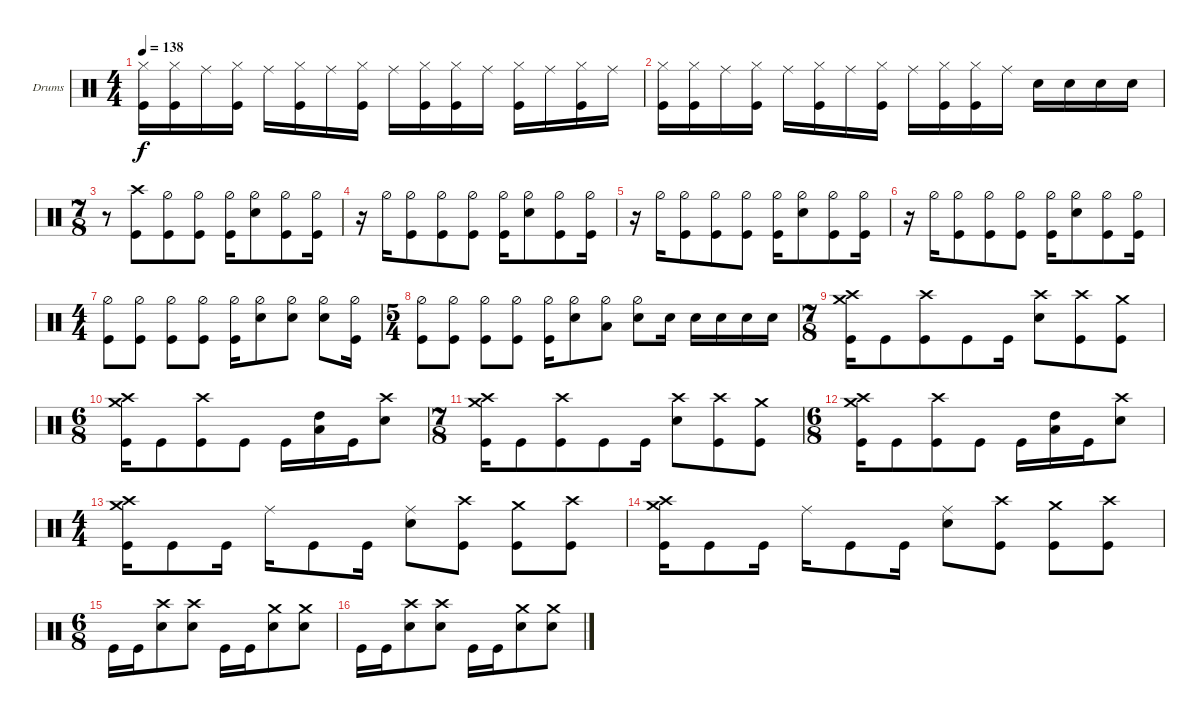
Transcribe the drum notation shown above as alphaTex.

\defaultSystemsLayout 4
\bracketExtendMode groupsimilarinstruments
\firstSystemTrackNameOrientation horizontal
\otherSystemsTrackNameOrientation horizontal
\track ("Moe Carlson" "Drums") {instrument percussion}
\staff {score}
\articulation defaults
\ts (4 4)
\tempo 138
\clef neutral
\ks c
("Hi-Hat (closed)" "Kick (hit)").16{dy f} ("Hi-Hat (closed)" "Kick (hit)").16 "Ride (middle)".16 ("Hi-Hat (closed)" "Kick (hit)").16 "Ride (middle)".16 ("Hi-Hat (closed)" "Kick (hit)").16 "Ride (middle)".16 ("Hi-Hat (closed)" "Kick (hit)").16 "Ride (middle)".16 ("Hi-Hat (closed)" "Kick (hit)").16 ("Hi-Hat (closed)" "Kick (hit)").16 "Ride (middle)".16 ("Hi-Hat (closed)" "Kick (hit)").16 "Ride (middle)".16 ("Hi-Hat (closed)" "Kick (hit)").16 "Ride (middle)".16 |
("Hi-Hat (closed)" "Kick (hit)").16 ("Hi-Hat (closed)" "Kick (hit)").16 "Ride (middle)".16 ("Hi-Hat (closed)" "Kick (hit)").16 "Ride (middle)".16 ("Hi-Hat (closed)" "Kick (hit)").16 "Ride (middle)".16 ("Hi-Hat (closed)" "Kick (hit)").16 "Ride (middle)".16 ("Hi-Hat (closed)" "Kick (hit)").16 ("Hi-Hat (closed)" "Kick (hit)").16 "Ride (middle)".16 "Snare (hit) 2".16 "Snare (hit) 2".16 "Snare (hit) 2".16 "Snare (hit) 2".16 |
\ts (7 8)
r.8 ("Kick (hit)" "Crash high (hit)").8 ("Kick (hit)" "Hi-Hat (half)").8 ("Kick (hit)" "Hi-Hat (half)").8 ("Kick (hit)" "Hi-Hat (half)").16 ("Hi-Hat (half)" "Snare (hit) 2").8 ("Hi-Hat (half)" "Kick (hit)").8 ("Kick (hit)" "Hi-Hat (half)").16 |
r.16 "Hi-Hat (half)".16 ("Hi-Hat (half)" "Kick (hit)").8 ("Hi-Hat (half)" "Kick (hit)").8 ("Hi-Hat (half)" "Kick (hit)").8 ("Hi-Hat (half)" "Kick (hit)").16 ("Hi-Hat (half)" "Snare (hit) 2").8 ("Hi-Hat (half)" "Kick (hit)").8 ("Hi-Hat (half)" "Kick (hit)").16 |
r.16 "Hi-Hat (half)".16 ("Hi-Hat (half)" "Kick (hit)").8 ("Hi-Hat (half)" "Kick (hit)").8 ("Hi-Hat (half)" "Kick (hit)").8 ("Hi-Hat (half)" "Kick (hit)").16 ("Hi-Hat (half)" "Snare (hit) 2").8 ("Hi-Hat (half)" "Kick (hit)").8 ("Hi-Hat (half)" "Kick (hit)").16 |
r.16 "Hi-Hat (half)".16 ("Hi-Hat (half)" "Kick (hit)").8 ("Hi-Hat (half)" "Kick (hit)").8 ("Hi-Hat (half)" "Kick (hit)").8 ("Hi-Hat (half)" "Kick (hit)").16 ("Hi-Hat (half)" "Snare (hit) 2").8 ("Hi-Hat (half)" "Kick (hit)").8 ("Hi-Hat (half)" "Kick (hit)").16 |
\ts (4 4)
("Kick (hit)" "Hi-Hat (half)").8 ("Kick (hit)" "Hi-Hat (half)").8 ("Kick (hit)" "Hi-Hat (half)").8 ("Kick (hit)" "Hi-Hat (half)").8 ("Kick (hit)" "Hi-Hat (half)").16 ("Snare (hit) 2" "Hi-Hat (half)").8 ("Snare (hit) 2" "Hi-Hat (half)").8 ("Snare (hit) 2" "Hi-Hat (half)").8 ("Kick (hit)" "Hi-Hat (half)").16 |
\ts (5 4)
("Hi-Hat (half)" "Kick (hit)").8 ("Hi-Hat (half)" "Kick (hit)").8 ("Kick (hit)" "Hi-Hat (half)").8 ("Hi-Hat (half)" "Kick (hit)").8 ("Hi-Hat (half)" "Kick (hit)").16 ("Hi-Hat (half)" "Snare (hit) 2").8 ("Hi-Hat (half)" "Low Tom (hit)").8 ("Hi-Hat (half)" "Snare (hit) 2").8 "Snare (hit) 2".16 "Snare (hit) 2".16 "Snare (hit) 2".16 "Snare (hit) 2".16 "Snare (hit) 2".16 |
\ts (7 8)
("Crash medium (hit)" "Crash high (hit)" "Kick (hit)").16 "Kick (hit)".8 ("Kick (hit)" "Crash high (hit)").8 "Kick (hit)".8 "Kick (hit)".16 ("Snare (hit) 2" "Crash high (hit)").8 ("Crash high (hit)" "Kick (hit)").8 ("Kick (hit)" "Crash medium (hit)").8 |
\ts (6 8)
("Crash medium (hit)" "Crash high (hit)" "Kick (hit)").16 "Kick (hit)".8 ("Kick (hit)" "Crash high (hit)").8 "Kick (hit)".8 "Kick (hit)".16 ("High Tom (hit)" "Low Tom (hit)").16 "Kick (hit)".16 ("Snare (hit) 2" "Crash high (hit)").8 |
\ts (7 8)
("Kick (hit)" "Crash medium (hit)" "Crash high (hit)").16 "Kick (hit)".8 ("Kick (hit)" "Crash high (hit)").8 "Kick (hit)".8 "Kick (hit)".16 ("Snare (hit) 2" "Crash high (hit)").8 ("Crash high (hit)" "Kick (hit)").8 ("Crash medium (hit)" "Kick (hit)").8 |
\ts (6 8)
("Crash medium (hit)" "Crash high (hit)" "Kick (hit)").16 "Kick (hit)".8 ("Kick (hit)" "Crash high (hit)").8 "Kick (hit)".8 "Kick (hit)".16 ("High Tom (hit)" "Low Tom (hit)").16 "Kick (hit)".16 ("Snare (hit) 2" "Crash high (hit)").8 |
\ts (4 4)
("Crash medium (hit)" "Crash high (hit)" "Kick (hit)").16 "Kick (hit)".8 "Kick (hit)".16 "Ride (middle)".16 "Kick (hit)".8 "Kick (hit)".16 ("Snare (hit) 2" "Ride (middle)").8 ("Crash high (hit)" "Kick (hit)").8 ("Crash medium (hit)" "Kick (hit)").8 ("Crash high (hit)" "Kick (hit)").8 |
("Kick (hit)" "Crash high (hit)" "Crash medium (hit)").16 "Kick (hit)".8 "Kick (hit)".16 "Ride (middle)".16 "Kick (hit)".8 "Kick (hit)".16 ("Snare (hit) 2" "Ride (middle)").8 ("Crash high (hit)" "Kick (hit)").8 ("Kick (hit)" "Crash medium (hit)").8 ("Kick (hit)" "Crash high (hit)").8 |
\ts (6 8)
"Kick (hit)".16 "Kick (hit)".16 ("Snare (hit) 2" "Crash high (hit)").8 ("Snare (hit) 2" "Crash high (hit)").8 "Kick (hit)".16 "Kick (hit)".16 ("Snare (hit) 2" "Crash medium (hit)").8 ("Snare (hit) 2" "Crash medium (hit)").8 |
"Kick (hit)".16 "Kick (hit)".16 ("Snare (hit) 2" "Crash high (hit)").8 ("Snare (hit) 2" "Crash high (hit)").8 "Kick (hit)".16 "Kick (hit)".16 ("Snare (hit) 2" "Crash medium (hit)").8 ("Snare (hit) 2" "Crash medium (hit)").8
